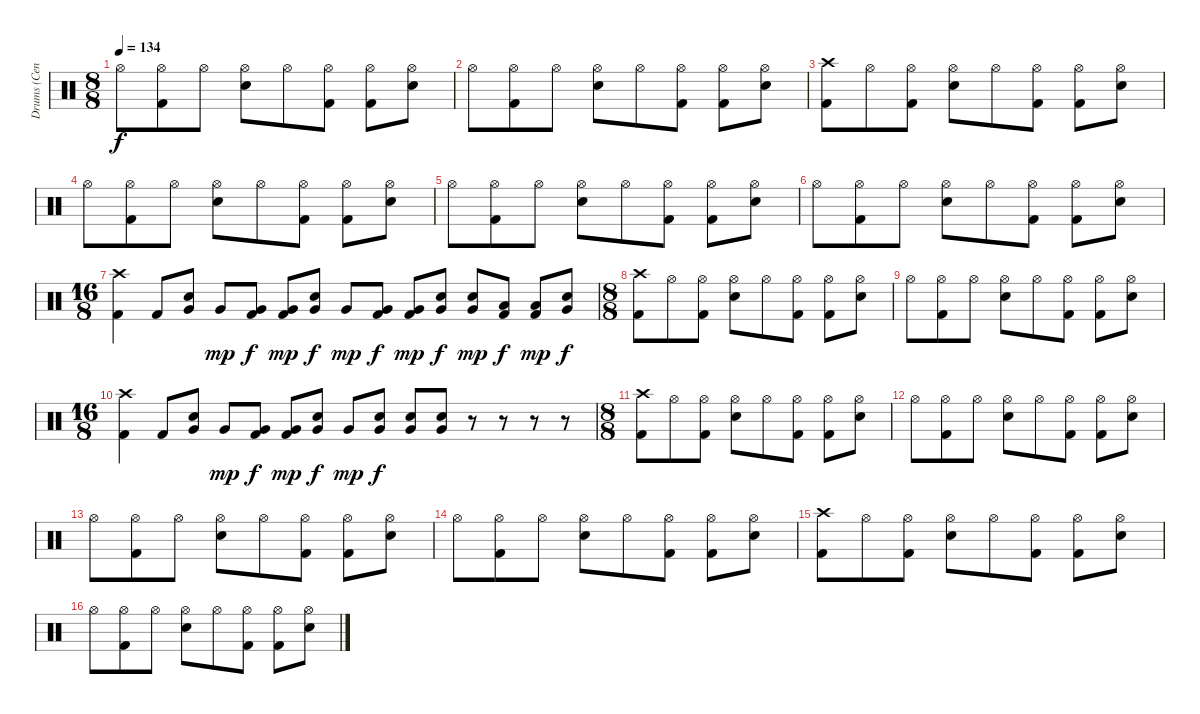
\track ("Drums (Cenk)" "Drums (Cen") {instrument percussion}
\staff {score}
\articulation defaults
\ts (8 8)
\tempo 134
\clef neutral
\ks c "Hi-Hat (open)".8{dy f}
("Hi-Hat (open)" "Kick (hit) 2").8 "Hi-Hat (open)".8 ("Hi-Hat (open)" "Snare (hit) 2").8 "Hi-Hat (open)".8 ("Hi-Hat (open)" "Kick (hit) 2").8 ("Hi-Hat (open)" "Kick (hit) 2").8 ("Hi-Hat (open)" "Snare (hit) 2").8 |
"Hi-Hat (open)".8 ("Hi-Hat (open)" "Kick (hit) 2").8 "Hi-Hat (open)".8 ("Hi-Hat (open)" "Snare (hit) 2").8 "Hi-Hat (open)".8 ("Hi-Hat (open)" "Kick (hit) 2").8 ("Hi-Hat (open)" "Kick (hit) 2").8 ("Hi-Hat (open)" "Snare (hit) 2").8 |
("Crash high (hit)" "Kick (hit) 2").8 "Hi-Hat (open)".8 ("Hi-Hat (open)" "Kick (hit) 2").8 ("Hi-Hat (open)" "Snare (hit) 2").8 "Hi-Hat (open)".8 ("Hi-Hat (open)" "Kick (hit) 2").8 ("Hi-Hat (open)" "Kick (hit) 2").8 ("Hi-Hat (open)" "Snare (hit) 2").8 |
"Hi-Hat (open)".8 ("Hi-Hat (open)" "Kick (hit) 2").8 "Hi-Hat (open)".8 ("Hi-Hat (open)" "Snare (hit) 2").8 "Hi-Hat (open)".8 ("Hi-Hat (open)" "Kick (hit) 2").8 ("Hi-Hat (open)" "Kick (hit) 2").8 ("Hi-Hat (open)" "Snare (hit) 2").8 |
"Hi-Hat (open)".8 ("Hi-Hat (open)" "Kick (hit) 2").8 "Hi-Hat (open)".8 ("Hi-Hat (open)" "Snare (hit) 2").8 "Hi-Hat (open)".8 ("Hi-Hat (open)" "Kick (hit) 2").8 ("Hi-Hat (open)" "Kick (hit) 2").8 ("Hi-Hat (open)" "Snare (hit) 2").8 |
"Hi-Hat (open)".8 ("Hi-Hat (open)" "Kick (hit) 2").8 "Hi-Hat (open)".8 ("Hi-Hat (open)" "Snare (hit) 2").8 "Hi-Hat (open)".8 ("Hi-Hat (open)" "Kick (hit) 2").8 ("Hi-Hat (open)" "Kick (hit) 2").8 ("Hi-Hat (open)" "Snare (hit) 2").8 |
\ts (16 8)
("Crash high (hit)" "Kick (hit) 2").4 "Kick (hit) 2".8 ("Very Low Tom (hit)" "Snare (hit) 2").8 "Very Low Tom (hit)".8{dy mp} ("Very Low Tom (hit)" "Kick (hit) 2").8{dy f} ("Very Low Tom (hit)" "Kick (hit) 2").8{dy mp} ("Very Low Tom (hit)" "Snare (hit) 2").8{dy f} "Very Low Tom (hit)".8{dy mp} ("Very Low Tom (hit)" "Kick (hit) 2").8{dy f} ("Very Low Tom (hit)" "Kick (hit) 2").8{dy mp} ("Very Low Tom (hit)" "Snare (hit) 2").8{dy f} ("Very Low Tom (hit)" "Snare (hit) 2").8{dy mp} ("Low Tom (hit)" "Kick (hit) 2").8{dy f} ("Low Tom (hit)" "Kick (hit) 2").8{dy mp} ("Very Low Tom (hit)" "Snare (hit) 2").8{dy f} |
\ts (8 8)
("Crash high (hit)" "Kick (hit) 2").8 "Hi-Hat (open)".8 ("Hi-Hat (open)" "Kick (hit) 2").8 ("Hi-Hat (open)" "Snare (hit) 2").8 "Hi-Hat (open)".8 ("Hi-Hat (open)" "Kick (hit) 2").8 ("Hi-Hat (open)" "Kick (hit) 2").8 ("Hi-Hat (open)" "Snare (hit) 2").8 |
"Hi-Hat (open)".8 ("Hi-Hat (open)" "Kick (hit) 2").8 "Hi-Hat (open)".8 ("Hi-Hat (open)" "Snare (hit) 2").8 "Hi-Hat (open)".8 ("Hi-Hat (open)" "Kick (hit) 2").8 ("Hi-Hat (open)" "Kick (hit) 2").8 ("Hi-Hat (open)" "Snare (hit) 2").8 |
\ts (16 8)
("Crash high (hit)" "Kick (hit) 2").4 "Kick (hit) 2".8 ("Very Low Tom (hit)" "Snare (hit) 2").8 "Very Low Tom (hit)".8{dy mp} ("Very Low Tom (hit)" "Kick (hit) 2").8{dy f} ("Very Low Tom (hit)" "Kick (hit) 2").8{dy mp} ("Very Low Tom (hit)" "Snare (hit) 2").8{dy f} "Very Low Tom (hit)".8{dy mp} ("Very Low Tom (hit)" "Snare (hit) 2").8{dy f} ("Very Low Tom (hit)" "Snare (hit) 2").8 ("Very Low Tom (hit)" "Snare (hit) 2").8 r.8 r.8 r.8 r.8 |
\ts (8 8)
("Crash high (hit)" "Kick (hit) 2").8 "Hi-Hat (open)".8 ("Hi-Hat (open)" "Kick (hit) 2").8 ("Hi-Hat (open)" "Snare (hit) 2").8 "Hi-Hat (open)".8 ("Hi-Hat (open)" "Kick (hit) 2").8 ("Hi-Hat (open)" "Kick (hit) 2").8 ("Hi-Hat (open)" "Snare (hit) 2").8 |
"Hi-Hat (open)".8 ("Hi-Hat (open)" "Kick (hit) 2").8 "Hi-Hat (open)".8 ("Hi-Hat (open)" "Snare (hit) 2").8 "Hi-Hat (open)".8 ("Hi-Hat (open)" "Kick (hit) 2").8 ("Hi-Hat (open)" "Kick (hit) 2").8 ("Hi-Hat (open)" "Snare (hit) 2").8 |
"Hi-Hat (open)".8 ("Hi-Hat (open)" "Kick (hit) 2").8 "Hi-Hat (open)".8 ("Hi-Hat (open)" "Snare (hit) 2").8 "Hi-Hat (open)".8 ("Hi-Hat (open)" "Kick (hit) 2").8 ("Hi-Hat (open)" "Kick (hit) 2").8 ("Hi-Hat (open)" "Snare (hit) 2").8 |
"Hi-Hat (open)".8 ("Hi-Hat (open)" "Kick (hit) 2").8 "Hi-Hat (open)".8 ("Hi-Hat (open)" "Snare (hit) 2").8 "Hi-Hat (open)".8 ("Hi-Hat (open)" "Kick (hit) 2").8 ("Hi-Hat (open)" "Kick (hit) 2").8 ("Hi-Hat (open)" "Snare (hit) 2").8 |
("Crash high (hit)" "Kick (hit) 2").8 "Hi-Hat (open)".8 ("Hi-Hat (open)" "Kick (hit) 2").8 ("Hi-Hat (open)" "Snare (hit) 2").8 "Hi-Hat (open)".8 ("Hi-Hat (open)" "Kick (hit) 2").8 ("Hi-Hat (open)" "Kick (hit) 2").8 ("Hi-Hat (open)" "Snare (hit) 2").8 |
"Hi-Hat (open)".8 ("Hi-Hat (open)" "Kick (hit) 2").8 "Hi-Hat (open)".8 ("Hi-Hat (open)" "Snare (hit) 2").8 "Hi-Hat (open)".8 ("Hi-Hat (open)" "Kick (hit) 2").8 ("Hi-Hat (open)" "Kick (hit) 2").8 ("Hi-Hat (open)" "Snare (hit) 2").8
